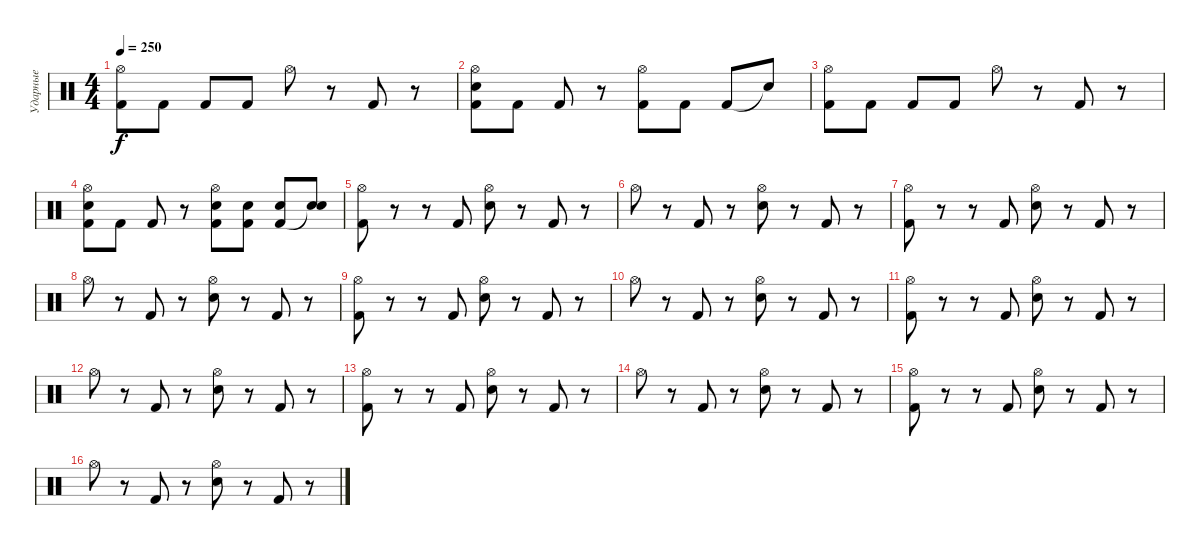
\track ("Ударные" "Ударные") {instrument percussion}
\staff {score}
\articulation defaults
\ts (4 4)
\tempo 250
\clef neutral
\ks c
("Hi-Hat (open)" "Kick (hit) 2").8{dy f} "Kick (hit) 2".8 "Kick (hit) 2".8 "Kick (hit) 2".8 "Hi-Hat (open)".8 r.8 "Kick (hit) 2".8 r.8 |
("Hi-Hat (open)" "Kick (hit) 2" "Electric Snare (hit)").8 "Kick (hit) 2".8 "Kick (hit) 2".8 r.8 ("Hi-Hat (open)" "Kick (hit) 2").8 "Kick (hit) 2".8 "Kick (hit) 2".8 "Snare (hit)"{t}.8 |
("Hi-Hat (open)" "Kick (hit) 2").8 "Kick (hit) 2".8 "Kick (hit) 2".8 "Kick (hit) 2".8 "Hi-Hat (open)".8 r.8 "Kick (hit) 2".8 r.8 |
("Hi-Hat (open)" "Kick (hit) 2" "Electric Snare (hit)").8 "Kick (hit) 2".8 "Kick (hit) 2".8 r.8 ("Hi-Hat (open)" "Kick (hit) 2" "Snare (hit) 2").8 ("Kick (hit) 2" "Snare (hit) 2").8 ("Kick (hit) 2" "Snare (hit) 2").8 ("Snare (hit)"{t} "Snare (hit) 2").8 |
("Hi-Hat (open)" "Kick (hit) 2").8 r.8 r.8 "Kick (hit) 2".8 ("Hi-Hat (open)" "Snare (hit) 2").8 r.8 "Kick (hit) 2".8 r.8 |
"Hi-Hat (open)".8 r.8 "Kick (hit) 2".8 r.8 ("Hi-Hat (open)" "Snare (hit) 2").8 r.8 "Kick (hit) 2".8 r.8 |
("Hi-Hat (open)" "Kick (hit) 2").8 r.8 r.8 "Kick (hit) 2".8 ("Hi-Hat (open)" "Snare (hit) 2").8 r.8 "Kick (hit) 2".8 r.8 |
"Hi-Hat (open)".8 r.8 "Kick (hit) 2".8 r.8 ("Hi-Hat (open)" "Snare (hit) 2").8 r.8 "Kick (hit) 2".8 r.8 |
("Hi-Hat (open)" "Kick (hit) 2").8 r.8 r.8 "Kick (hit) 2".8 ("Hi-Hat (open)" "Snare (hit) 2").8 r.8 "Kick (hit) 2".8 r.8 |
"Hi-Hat (open)".8 r.8 "Kick (hit) 2".8 r.8 ("Hi-Hat (open)" "Snare (hit) 2").8 r.8 "Kick (hit) 2".8 r.8 |
("Hi-Hat (open)" "Kick (hit) 2").8 r.8 r.8 "Kick (hit) 2".8 ("Hi-Hat (open)" "Snare (hit) 2").8 r.8 "Kick (hit) 2".8 r.8 |
"Hi-Hat (open)".8 r.8 "Kick (hit) 2".8 r.8 ("Hi-Hat (open)" "Snare (hit) 2").8 r.8 "Kick (hit) 2".8 r.8 |
("Hi-Hat (open)" "Kick (hit) 2").8 r.8 r.8 "Kick (hit) 2".8 ("Hi-Hat (open)" "Snare (hit) 2").8 r.8 "Kick (hit) 2".8 r.8 |
"Hi-Hat (open)".8 r.8 "Kick (hit) 2".8 r.8 ("Hi-Hat (open)" "Snare (hit) 2").8 r.8 "Kick (hit) 2".8 r.8 |
("Hi-Hat (open)" "Kick (hit) 2").8 r.8 r.8 "Kick (hit) 2".8 ("Hi-Hat (open)" "Snare (hit) 2").8 r.8 "Kick (hit) 2".8 r.8 |
"Hi-Hat (open)".8 r.8 "Kick (hit) 2".8 r.8 ("Hi-Hat (open)" "Snare (hit) 2").8 r.8 "Kick (hit) 2".8 r.8
